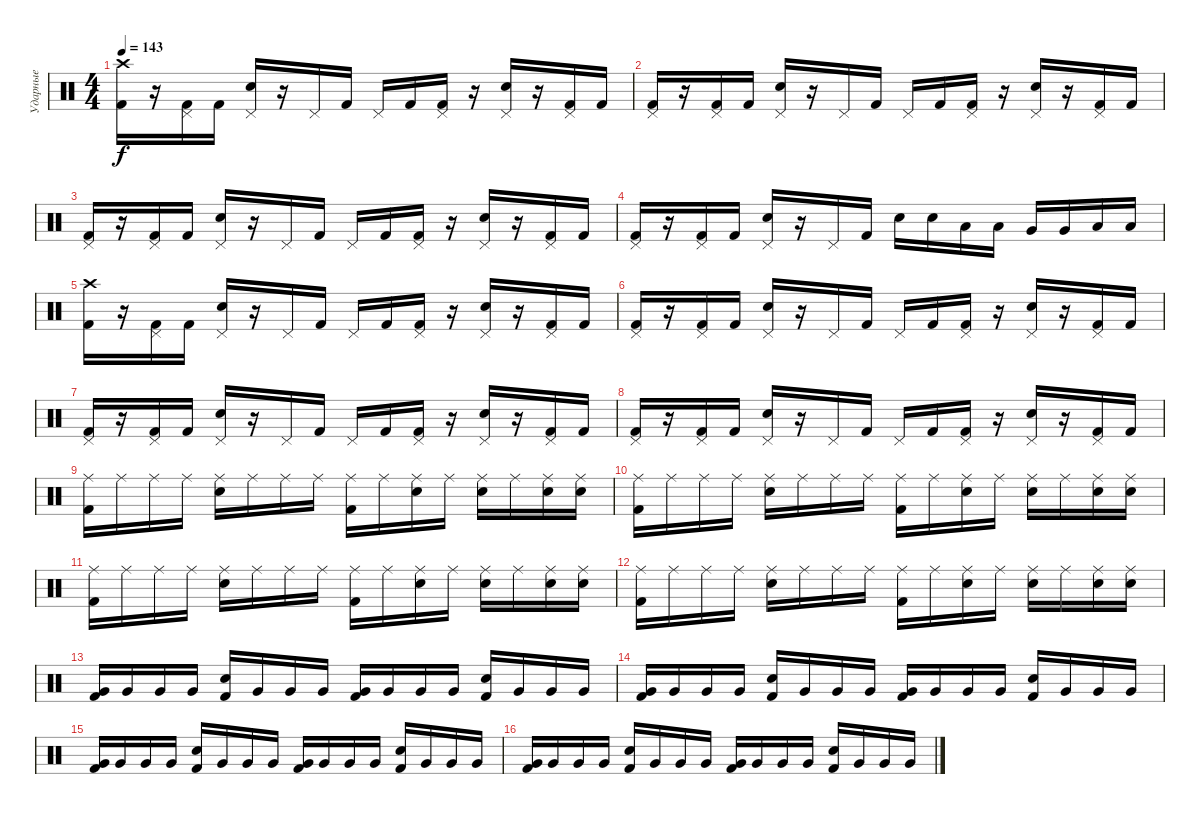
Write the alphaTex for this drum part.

\track ("Ударные" "Ударные") {instrument percussion}
\staff {score}
\articulation defaults
\ts (4 4)
\tempo 143
\clef neutral
\ks c
("Crash high (hit)" "Kick (hit) 2").16{dy f} r.16 ("Pedal Hi-Hat (hit)" "Kick (hit) 2").16 "Kick (hit) 2".16 ("Pedal Hi-Hat (hit)" "Electric Snare (hit)").16 r.16 "Pedal Hi-Hat (hit)".16 "Kick (hit) 2".16 "Pedal Hi-Hat (hit)".16 "Kick (hit) 2".16 ("Pedal Hi-Hat (hit)" "Kick (hit) 2").16 r.16 ("Pedal Hi-Hat (hit)" "Electric Snare (hit)").16 r.16 ("Pedal Hi-Hat (hit)" "Kick (hit) 2").16 "Kick (hit) 2".16 |
("Pedal Hi-Hat (hit)" "Kick (hit) 2").16 r.16 ("Pedal Hi-Hat (hit)" "Kick (hit) 2").16 "Kick (hit) 2".16 ("Pedal Hi-Hat (hit)" "Electric Snare (hit)").16 r.16 "Pedal Hi-Hat (hit)".16 "Kick (hit) 2".16 "Pedal Hi-Hat (hit)".16 "Kick (hit) 2".16 ("Pedal Hi-Hat (hit)" "Kick (hit) 2").16 r.16 ("Pedal Hi-Hat (hit)" "Electric Snare (hit)").16 r.16 ("Pedal Hi-Hat (hit)" "Kick (hit) 2").16 "Kick (hit) 2".16 |
("Pedal Hi-Hat (hit)" "Kick (hit) 2").16 r.16 ("Pedal Hi-Hat (hit)" "Kick (hit) 2").16 "Kick (hit) 2".16 ("Pedal Hi-Hat (hit)" "Electric Snare (hit)").16 r.16 "Pedal Hi-Hat (hit)".16 "Kick (hit) 2".16 "Pedal Hi-Hat (hit)".16 "Kick (hit) 2".16 ("Pedal Hi-Hat (hit)" "Kick (hit) 2").16 r.16 ("Pedal Hi-Hat (hit)" "Electric Snare (hit)").16 r.16 ("Pedal Hi-Hat (hit)" "Kick (hit) 2").16 "Kick (hit) 2".16 |
("Pedal Hi-Hat (hit)" "Kick (hit) 2").16 r.16 ("Pedal Hi-Hat (hit)" "Kick (hit) 2").16 "Kick (hit) 2".16 ("Pedal Hi-Hat (hit)" "Electric Snare (hit)").16 r.16 "Pedal Hi-Hat (hit)".16 "Kick (hit) 2".16 "Electric Snare (hit)".16 "Electric Snare (hit)".16 "Low Tom (hit)".16 "Low Tom (hit)".16 "Very Low Tom (hit)".16 "Very Low Tom (hit)".16 "Low Floor Tom (hit)".16 "Low Floor Tom (hit)".16 |
("Crash high (hit)" "Kick (hit) 2").16 r.16 ("Pedal Hi-Hat (hit)" "Kick (hit) 2").16 "Kick (hit) 2".16 ("Pedal Hi-Hat (hit)" "Electric Snare (hit)").16 r.16 "Pedal Hi-Hat (hit)".16 "Kick (hit) 2".16 "Pedal Hi-Hat (hit)".16 "Kick (hit) 2".16 ("Pedal Hi-Hat (hit)" "Kick (hit) 2").16 r.16 ("Pedal Hi-Hat (hit)" "Electric Snare (hit)").16 r.16 ("Pedal Hi-Hat (hit)" "Kick (hit) 2").16 "Kick (hit) 2".16 |
("Pedal Hi-Hat (hit)" "Kick (hit) 2").16 r.16 ("Pedal Hi-Hat (hit)" "Kick (hit) 2").16 "Kick (hit) 2".16 ("Pedal Hi-Hat (hit)" "Electric Snare (hit)").16 r.16 "Pedal Hi-Hat (hit)".16 "Kick (hit) 2".16 "Pedal Hi-Hat (hit)".16 "Kick (hit) 2".16 ("Pedal Hi-Hat (hit)" "Kick (hit) 2").16 r.16 ("Pedal Hi-Hat (hit)" "Electric Snare (hit)").16 r.16 ("Pedal Hi-Hat (hit)" "Kick (hit) 2").16 "Kick (hit) 2".16 |
("Pedal Hi-Hat (hit)" "Kick (hit) 2").16 r.16 ("Pedal Hi-Hat (hit)" "Kick (hit) 2").16 "Kick (hit) 2".16 ("Pedal Hi-Hat (hit)" "Electric Snare (hit)").16 r.16 "Pedal Hi-Hat (hit)".16 "Kick (hit) 2".16 "Pedal Hi-Hat (hit)".16 "Kick (hit) 2".16 ("Pedal Hi-Hat (hit)" "Kick (hit) 2").16 r.16 ("Pedal Hi-Hat (hit)" "Electric Snare (hit)").16 r.16 ("Pedal Hi-Hat (hit)" "Kick (hit) 2").16 "Kick (hit) 2".16 |
("Pedal Hi-Hat (hit)" "Kick (hit) 2").16 r.16 ("Pedal Hi-Hat (hit)" "Kick (hit) 2").16 "Kick (hit) 2".16 ("Pedal Hi-Hat (hit)" "Electric Snare (hit)").16 r.16 "Pedal Hi-Hat (hit)".16 "Kick (hit) 2".16 "Pedal Hi-Hat (hit)".16 "Kick (hit) 2".16 ("Pedal Hi-Hat (hit)" "Kick (hit) 2").16 r.16 ("Pedal Hi-Hat (hit)" "Electric Snare (hit)").16 r.16 ("Pedal Hi-Hat (hit)" "Kick (hit) 2").16 "Kick (hit) 2".16 |
("Ride (middle)" "Kick (hit) 2").16 "Ride (middle)".16 "Ride (middle)".16 "Ride (middle)".16 ("Ride (middle)" "Electric Snare (hit)").16 "Ride (middle)".16 "Ride (middle)".16 "Ride (middle)".16 ("Ride (middle)" "Kick (hit) 2").16 "Ride (middle)".16 ("Ride (middle)" "Electric Snare (hit)").16 "Ride (middle)".16 ("Ride (middle)" "Electric Snare (hit)").16 "Ride (middle)".16 ("Ride (middle)" "Electric Snare (hit)").16 ("Ride (middle)" "Electric Snare (hit)").16 |
("Ride (middle)" "Kick (hit) 2").16 "Ride (middle)".16 "Ride (middle)".16 "Ride (middle)".16 ("Ride (middle)" "Electric Snare (hit)").16 "Ride (middle)".16 "Ride (middle)".16 "Ride (middle)".16 ("Ride (middle)" "Kick (hit) 2").16 "Ride (middle)".16 ("Ride (middle)" "Electric Snare (hit)").16 "Ride (middle)".16 ("Ride (middle)" "Electric Snare (hit)").16 "Ride (middle)".16 ("Ride (middle)" "Electric Snare (hit)").16 ("Ride (middle)" "Electric Snare (hit)").16 |
("Ride (middle)" "Kick (hit) 2").16 "Ride (middle)".16 "Ride (middle)".16 "Ride (middle)".16 ("Ride (middle)" "Electric Snare (hit)").16 "Ride (middle)".16 "Ride (middle)".16 "Ride (middle)".16 ("Ride (middle)" "Kick (hit) 2").16 "Ride (middle)".16 ("Ride (middle)" "Electric Snare (hit)").16 "Ride (middle)".16 ("Ride (middle)" "Electric Snare (hit)").16 "Ride (middle)".16 ("Ride (middle)" "Electric Snare (hit)").16 ("Ride (middle)" "Electric Snare (hit)").16 |
("Ride (middle)" "Kick (hit) 2").16 "Ride (middle)".16 "Ride (middle)".16 "Ride (middle)".16 ("Ride (middle)" "Electric Snare (hit)").16 "Ride (middle)".16 "Ride (middle)".16 "Ride (middle)".16 ("Ride (middle)" "Kick (hit) 2").16 "Ride (middle)".16 ("Ride (middle)" "Electric Snare (hit)").16 "Ride (middle)".16 ("Ride (middle)" "Electric Snare (hit)").16 "Ride (middle)".16 ("Ride (middle)" "Electric Snare (hit)").16 ("Ride (middle)" "Electric Snare (hit)").16 |
("Very Low Tom (hit)" "Kick (hit) 2").16 "Very Low Tom (hit)".16 "Very Low Tom (hit)".16 "Very Low Tom (hit)".16 ("Electric Snare (hit)" "Kick (hit) 2").16 "Very Low Tom (hit)".16 "Very Low Tom (hit)".16 "Very Low Tom (hit)".16 ("Very Low Tom (hit)" "Kick (hit) 2").16 "Very Low Tom (hit)".16 "Very Low Tom (hit)".16 "Very Low Tom (hit)".16 ("Electric Snare (hit)" "Kick (hit) 2").16 "Very Low Tom (hit)".16 "Very Low Tom (hit)".16 "Very Low Tom (hit)".16 |
("Very Low Tom (hit)" "Kick (hit) 2").16 "Very Low Tom (hit)".16 "Very Low Tom (hit)".16 "Very Low Tom (hit)".16 ("Electric Snare (hit)" "Kick (hit) 2").16 "Very Low Tom (hit)".16 "Very Low Tom (hit)".16 "Very Low Tom (hit)".16 ("Very Low Tom (hit)" "Kick (hit) 2").16 "Very Low Tom (hit)".16 "Very Low Tom (hit)".16 "Very Low Tom (hit)".16 ("Electric Snare (hit)" "Kick (hit) 2").16 "Very Low Tom (hit)".16 "Very Low Tom (hit)".16 "Very Low Tom (hit)".16 |
("Very Low Tom (hit)" "Kick (hit) 2").16 "Very Low Tom (hit)".16 "Very Low Tom (hit)".16 "Very Low Tom (hit)".16 ("Electric Snare (hit)" "Kick (hit) 2").16 "Very Low Tom (hit)".16 "Very Low Tom (hit)".16 "Very Low Tom (hit)".16 ("Very Low Tom (hit)" "Kick (hit) 2").16 "Very Low Tom (hit)".16 "Very Low Tom (hit)".16 "Very Low Tom (hit)".16 ("Electric Snare (hit)" "Kick (hit) 2").16 "Very Low Tom (hit)".16 "Very Low Tom (hit)".16 "Very Low Tom (hit)".16 |
("Very Low Tom (hit)" "Kick (hit) 2").16 "Very Low Tom (hit)".16 "Very Low Tom (hit)".16 "Very Low Tom (hit)".16 ("Electric Snare (hit)" "Kick (hit) 2").16 "Very Low Tom (hit)".16 "Very Low Tom (hit)".16 "Very Low Tom (hit)".16 ("Very Low Tom (hit)" "Kick (hit) 2").16 "Very Low Tom (hit)".16 "Very Low Tom (hit)".16 "Very Low Tom (hit)".16 ("Electric Snare (hit)" "Kick (hit) 2").16 "Very Low Tom (hit)".16 "Very Low Tom (hit)".16 "Very Low Tom (hit)".16
